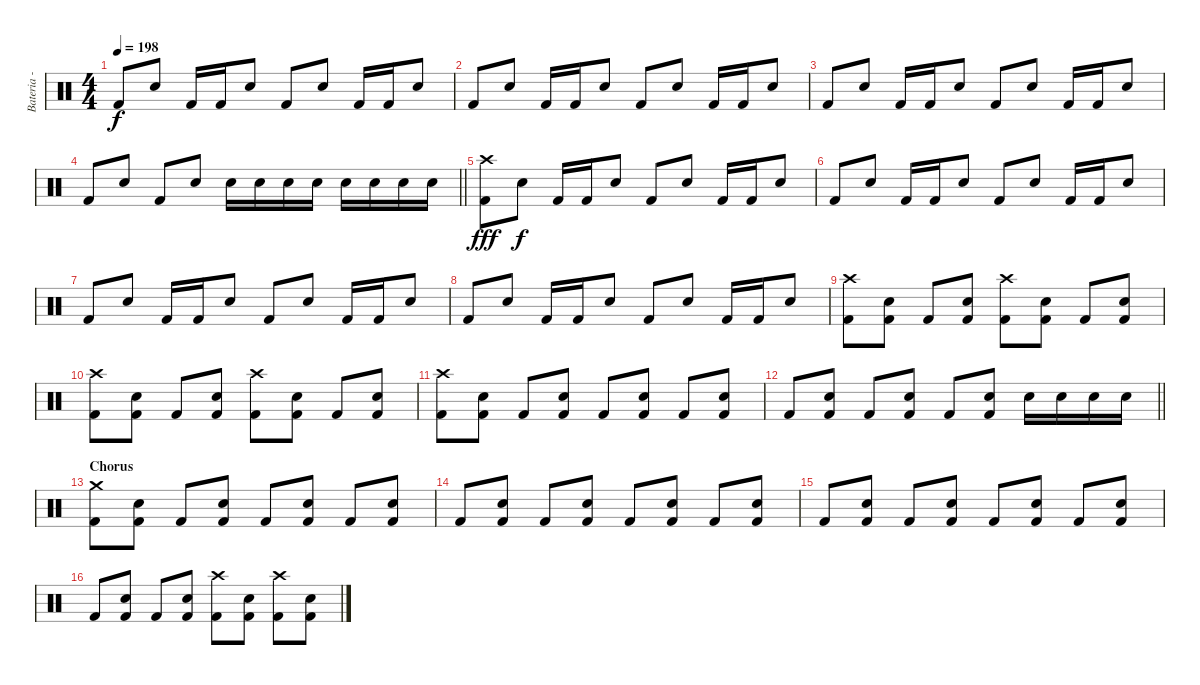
\track ("Bateria - Larzon" "Bateria - ") {instrument percussion}
\staff {score}
\articulation defaults
\ts (4 4)
\tempo 198
\clef neutral
\ks c "Kick (hit) 2".8{dy f} "Snare (hit) 2".8 "Kick (hit) 2".16 "Kick (hit) 2".16 "Snare (hit) 2".8 "Kick (hit) 2".8 "Snare (hit) 2".8 "Kick (hit) 2".16 "Kick (hit) 2".16 "Snare (hit) 2".8
|
"Kick (hit) 2".8 "Snare (hit) 2".8 "Kick (hit) 2".16 "Kick (hit) 2".16 "Snare (hit) 2".8 "Kick (hit) 2".8 "Snare (hit) 2".8 "Kick (hit) 2".16 "Kick (hit) 2".16 "Snare (hit) 2".8 |
"Kick (hit) 2".8 "Snare (hit) 2".8 "Kick (hit) 2".16 "Kick (hit) 2".16 "Snare (hit) 2".8 "Kick (hit) 2".8 "Snare (hit) 2".8 "Kick (hit) 2".16 "Kick (hit) 2".16 "Snare (hit) 2".8 |
\barLineRight lightlight "Kick (hit) 2".8 "Snare (hit) 2".8 "Kick (hit) 2".8 "Snare (hit) 2".8 "Snare (hit) 2".16 "Snare (hit) 2".16 "Snare (hit) 2".16 "Snare (hit) 2".16 "Snare (hit) 2".16 "Snare (hit) 2".16 "Snare (hit) 2".16 "Snare (hit) 2".16
|
("Crash high (hit)" "Kick (hit) 2").8{dy fff} "Snare (hit) 2".8{dy f} "Kick (hit) 2".16 "Kick (hit) 2".16 "Snare (hit) 2".8 "Kick (hit) 2".8 "Snare (hit) 2".8 "Kick (hit) 2".16 "Kick (hit) 2".16 "Snare (hit) 2".8 |
"Kick (hit) 2".8 "Snare (hit) 2".8 "Kick (hit) 2".16 "Kick (hit) 2".16 "Snare (hit) 2".8 "Kick (hit) 2".8 "Snare (hit) 2".8 "Kick (hit) 2".16 "Kick (hit) 2".16 "Snare (hit) 2".8 |
"Kick (hit) 2".8 "Snare (hit) 2".8 "Kick (hit) 2".16 "Kick (hit) 2".16 "Snare (hit) 2".8 "Kick (hit) 2".8 "Snare (hit) 2".8 "Kick (hit) 2".16 "Kick (hit) 2".16 "Snare (hit) 2".8 |
"Kick (hit) 2".8 "Snare (hit) 2".8 "Kick (hit) 2".16 "Kick (hit) 2".16 "Snare (hit) 2".8 "Kick (hit) 2".8 "Snare (hit) 2".8 "Kick (hit) 2".16 "Kick (hit) 2".16 "Snare (hit) 2".8 |
("Crash high (hit)" "Kick (hit) 2").8 ("Snare (hit) 2" "Kick (hit) 2").8 "Kick (hit) 2".8 ("Snare (hit) 2" "Kick (hit) 2").8 ("Crash high (hit)" "Kick (hit) 2").8 ("Snare (hit) 2" "Kick (hit) 2").8 "Kick (hit) 2".8 ("Snare (hit) 2" "Kick (hit) 2").8 |
("Crash high (hit)" "Kick (hit) 2").8 ("Snare (hit) 2" "Kick (hit) 2").8 "Kick (hit) 2".8 ("Snare (hit) 2" "Kick (hit) 2").8 ("Crash high (hit)" "Kick (hit) 2").8 ("Snare (hit) 2" "Kick (hit) 2").8 "Kick (hit) 2".8 ("Snare (hit) 2" "Kick (hit) 2").8 |
("Crash high (hit)" "Kick (hit) 2").8 ("Snare (hit) 2" "Kick (hit) 2").8 "Kick (hit) 2".8 ("Snare (hit) 2" "Kick (hit) 2").8 "Kick (hit) 2".8 ("Snare (hit) 2" "Kick (hit) 2").8 "Kick (hit) 2".8 ("Snare (hit) 2" "Kick (hit) 2").8 |
\barLineRight lightlight "Kick (hit) 2".8
("Snare (hit) 2" "Kick (hit) 2").8 "Kick (hit) 2".8 ("Snare (hit) 2" "Kick (hit) 2").8 "Kick (hit) 2".8 ("Snare (hit) 2" "Kick (hit) 2").8 "Snare (hit) 2".16 "Snare (hit) 2".16 "Snare (hit) 2".16 "Snare (hit) 2".16 |
\section ("" "Chorus")
("Crash medium (hit)" "Kick (hit) 2").8 ("Snare (hit) 2" "Kick (hit) 2").8 "Kick (hit) 2".8 ("Snare (hit) 2" "Kick (hit) 2").8 "Kick (hit) 2".8 ("Snare (hit) 2" "Kick (hit) 2").8 "Kick (hit) 2".8 ("Snare (hit) 2" "Kick (hit) 2").8 |
"Kick (hit) 2".8 ("Snare (hit) 2" "Kick (hit) 2").8 "Kick (hit) 2".8 ("Snare (hit) 2" "Kick (hit) 2").8 "Kick (hit) 2".8 ("Snare (hit) 2" "Kick (hit) 2").8 "Kick (hit) 2".8 ("Snare (hit) 2" "Kick (hit) 2").8 |
"Kick (hit) 2".8 ("Snare (hit) 2" "Kick (hit) 2").8 "Kick (hit) 2".8 ("Snare (hit) 2" "Kick (hit) 2").8 "Kick (hit) 2".8 ("Snare (hit) 2" "Kick (hit) 2").8 "Kick (hit) 2".8 ("Snare (hit) 2" "Kick (hit) 2").8 |
"Kick (hit) 2".8 ("Snare (hit) 2" "Kick (hit) 2").8 "Kick (hit) 2".8 ("Snare (hit) 2" "Kick (hit) 2").8 ("Crash high (hit)" "Kick (hit) 2").8 ("Snare (hit) 2" "Kick (hit) 2").8 ("Crash high (hit)" "Kick (hit) 2").8 ("Snare (hit) 2" "Kick (hit) 2").8
